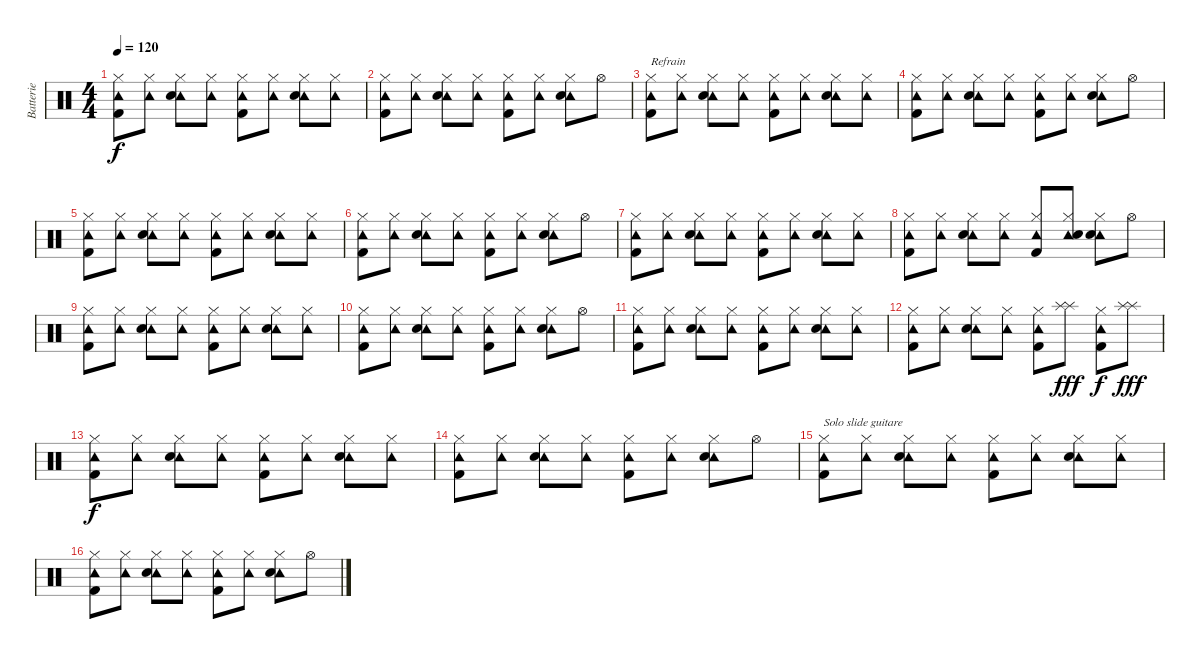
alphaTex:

\track ("Batterie" "Batterie") {instrument percussion}
\staff {score}
\articulation defaults
\ts (4 4)
\tempo 120
\clef neutral
\ks c
("Tambourine (hit)" "Hi-Hat (closed)" "Kick (hit) 2").8{dy f} ("Tambourine (hit)" "Hi-Hat (closed)").8 ("Tambourine (hit)" "Hi-Hat (closed)" "Electric Snare (hit)").8 ("Tambourine (hit)" "Hi-Hat (closed)").8 ("Tambourine (hit)" "Hi-Hat (closed)" "Kick (hit) 2").8 ("Tambourine (hit)" "Hi-Hat (closed)").8 ("Tambourine (hit)" "Hi-Hat (closed)" "Electric Snare (hit)").8 ("Tambourine (hit)" "Hi-Hat (closed)").8 |
("Tambourine (hit)" "Hi-Hat (closed)" "Kick (hit) 2").8 ("Tambourine (hit)" "Hi-Hat (closed)").8 ("Tambourine (hit)" "Hi-Hat (closed)" "Electric Snare (hit)").8 ("Tambourine (hit)" "Hi-Hat (closed)").8 ("Tambourine (hit)" "Hi-Hat (closed)" "Kick (hit) 2").8 ("Tambourine (hit)" "Hi-Hat (closed)").8 ("Tambourine (hit)" "Hi-Hat (closed)" "Electric Snare (hit)").8 "Hi-Hat (open)".8 |
("Tambourine (hit)" "Hi-Hat (closed)" "Kick (hit) 2").8{txt "Refrain"} ("Tambourine (hit)" "Hi-Hat (closed)").8 ("Tambourine (hit)" "Hi-Hat (closed)" "Electric Snare (hit)").8 ("Tambourine (hit)" "Hi-Hat (closed)").8 ("Tambourine (hit)" "Hi-Hat (closed)" "Kick (hit) 2").8 ("Tambourine (hit)" "Hi-Hat (closed)").8 ("Tambourine (hit)" "Hi-Hat (closed)" "Electric Snare (hit)").8 ("Tambourine (hit)" "Hi-Hat (closed)").8 |
("Tambourine (hit)" "Hi-Hat (closed)" "Kick (hit) 2").8 ("Tambourine (hit)" "Hi-Hat (closed)").8 ("Tambourine (hit)" "Hi-Hat (closed)" "Electric Snare (hit)").8 ("Tambourine (hit)" "Hi-Hat (closed)").8 ("Tambourine (hit)" "Hi-Hat (closed)" "Kick (hit) 2").8 ("Tambourine (hit)" "Hi-Hat (closed)").8 ("Tambourine (hit)" "Hi-Hat (closed)" "Electric Snare (hit)").8 "Hi-Hat (open)".8 |
("Tambourine (hit)" "Hi-Hat (closed)" "Kick (hit) 2").8 ("Tambourine (hit)" "Hi-Hat (closed)").8 ("Tambourine (hit)" "Hi-Hat (closed)" "Electric Snare (hit)").8 ("Tambourine (hit)" "Hi-Hat (closed)").8 ("Tambourine (hit)" "Hi-Hat (closed)" "Kick (hit) 2").8 ("Tambourine (hit)" "Hi-Hat (closed)").8 ("Tambourine (hit)" "Hi-Hat (closed)" "Electric Snare (hit)").8 ("Tambourine (hit)" "Hi-Hat (closed)").8 |
("Tambourine (hit)" "Hi-Hat (closed)" "Kick (hit) 2").8 ("Tambourine (hit)" "Hi-Hat (closed)").8 ("Tambourine (hit)" "Hi-Hat (closed)" "Electric Snare (hit)").8 ("Tambourine (hit)" "Hi-Hat (closed)").8 ("Tambourine (hit)" "Hi-Hat (closed)" "Kick (hit) 2").8 ("Tambourine (hit)" "Hi-Hat (closed)").8 ("Tambourine (hit)" "Hi-Hat (closed)" "Electric Snare (hit)").8 "Hi-Hat (open)".8 |
("Tambourine (hit)" "Hi-Hat (closed)" "Kick (hit) 2").8 ("Tambourine (hit)" "Hi-Hat (closed)").8 ("Tambourine (hit)" "Hi-Hat (closed)" "Electric Snare (hit)").8 ("Tambourine (hit)" "Hi-Hat (closed)").8 ("Tambourine (hit)" "Hi-Hat (closed)" "Kick (hit) 2").8 ("Tambourine (hit)" "Hi-Hat (closed)").8 ("Tambourine (hit)" "Hi-Hat (closed)" "Electric Snare (hit)").8 ("Tambourine (hit)" "Hi-Hat (closed)").8 |
("Tambourine (hit)" "Hi-Hat (closed)" "Kick (hit) 2").8 ("Tambourine (hit)" "Hi-Hat (closed)").8 ("Tambourine (hit)" "Hi-Hat (closed)" "Electric Snare (hit)").8 ("Tambourine (hit)" "Hi-Hat (closed)").8 ("Tambourine (hit)" "Hi-Hat (closed)" "Kick (hit) 2").8 ("Tambourine (hit)" "Hi-Hat (closed)" "Electric Snare (hit)").8 ("Tambourine (hit)" "Hi-Hat (closed)" "Electric Snare (hit)").8 "Hi-Hat (open)".8 |
("Tambourine (hit)" "Hi-Hat (closed)" "Kick (hit) 2").8 ("Tambourine (hit)" "Hi-Hat (closed)").8 ("Tambourine (hit)" "Hi-Hat (closed)" "Electric Snare (hit)").8 ("Tambourine (hit)" "Hi-Hat (closed)").8 ("Tambourine (hit)" "Hi-Hat (closed)" "Kick (hit) 2").8 ("Tambourine (hit)" "Hi-Hat (closed)").8 ("Tambourine (hit)" "Hi-Hat (closed)" "Electric Snare (hit)").8 ("Tambourine (hit)" "Hi-Hat (closed)").8 |
("Tambourine (hit)" "Hi-Hat (closed)" "Kick (hit) 2").8 ("Tambourine (hit)" "Hi-Hat (closed)").8 ("Tambourine (hit)" "Hi-Hat (closed)" "Electric Snare (hit)").8 ("Tambourine (hit)" "Hi-Hat (closed)").8 ("Tambourine (hit)" "Hi-Hat (closed)" "Kick (hit) 2").8 ("Tambourine (hit)" "Hi-Hat (closed)").8 ("Tambourine (hit)" "Hi-Hat (closed)" "Electric Snare (hit)").8 "Hi-Hat (open)".8 |
("Tambourine (hit)" "Hi-Hat (closed)" "Kick (hit) 2").8 ("Tambourine (hit)" "Hi-Hat (closed)").8 ("Tambourine (hit)" "Hi-Hat (closed)" "Electric Snare (hit)").8 ("Tambourine (hit)" "Hi-Hat (closed)").8 ("Tambourine (hit)" "Hi-Hat (closed)" "Kick (hit) 2").8 ("Tambourine (hit)" "Hi-Hat (closed)").8 ("Tambourine (hit)" "Hi-Hat (closed)" "Electric Snare (hit)").8 ("Tambourine (hit)" "Hi-Hat (closed)").8 |
("Tambourine (hit)" "Hi-Hat (closed)" "Kick (hit) 2").8 ("Tambourine (hit)" "Hi-Hat (closed)").8 ("Tambourine (hit)" "Hi-Hat (closed)" "Electric Snare (hit)").8 ("Tambourine (hit)" "Hi-Hat (closed)").8 ("Tambourine (hit)" "Hi-Hat (closed)" "Kick (hit) 2").8 ("Splash (hit)" "Splash (hit)").8{dy fff} ("Tambourine (hit)" "Hi-Hat (closed)" "Kick (hit) 2").8{dy f} ("Splash (hit)" "Splash (hit)").8{dy fff} |
("Tambourine (hit)" "Hi-Hat (closed)" "Kick (hit) 2").8{dy f} ("Tambourine (hit)" "Hi-Hat (closed)").8 ("Tambourine (hit)" "Hi-Hat (closed)" "Electric Snare (hit)").8 ("Tambourine (hit)" "Hi-Hat (closed)").8 ("Tambourine (hit)" "Hi-Hat (closed)" "Kick (hit) 2").8 ("Tambourine (hit)" "Hi-Hat (closed)").8 ("Tambourine (hit)" "Hi-Hat (closed)" "Electric Snare (hit)").8 ("Tambourine (hit)" "Hi-Hat (closed)").8 |
("Tambourine (hit)" "Hi-Hat (closed)" "Kick (hit) 2").8 ("Tambourine (hit)" "Hi-Hat (closed)").8 ("Tambourine (hit)" "Hi-Hat (closed)" "Electric Snare (hit)").8 ("Tambourine (hit)" "Hi-Hat (closed)").8 ("Tambourine (hit)" "Hi-Hat (closed)" "Kick (hit) 2").8 ("Tambourine (hit)" "Hi-Hat (closed)").8 ("Tambourine (hit)" "Hi-Hat (closed)" "Electric Snare (hit)").8 "Hi-Hat (open)".8 |
("Tambourine (hit)" "Hi-Hat (closed)" "Kick (hit) 2").8{txt "Solo slide guitare"} ("Tambourine (hit)" "Hi-Hat (closed)").8 ("Tambourine (hit)" "Hi-Hat (closed)" "Electric Snare (hit)").8 ("Tambourine (hit)" "Hi-Hat (closed)").8 ("Tambourine (hit)" "Hi-Hat (closed)" "Kick (hit) 2").8 ("Tambourine (hit)" "Hi-Hat (closed)").8 ("Tambourine (hit)" "Hi-Hat (closed)" "Electric Snare (hit)").8 ("Tambourine (hit)" "Hi-Hat (closed)").8 |
("Tambourine (hit)" "Hi-Hat (closed)" "Kick (hit) 2").8 ("Tambourine (hit)" "Hi-Hat (closed)").8 ("Tambourine (hit)" "Hi-Hat (closed)" "Electric Snare (hit)").8 ("Tambourine (hit)" "Hi-Hat (closed)").8 ("Tambourine (hit)" "Hi-Hat (closed)" "Kick (hit) 2").8 ("Tambourine (hit)" "Hi-Hat (closed)").8 ("Tambourine (hit)" "Hi-Hat (closed)" "Electric Snare (hit)").8 "Hi-Hat (open)".8
